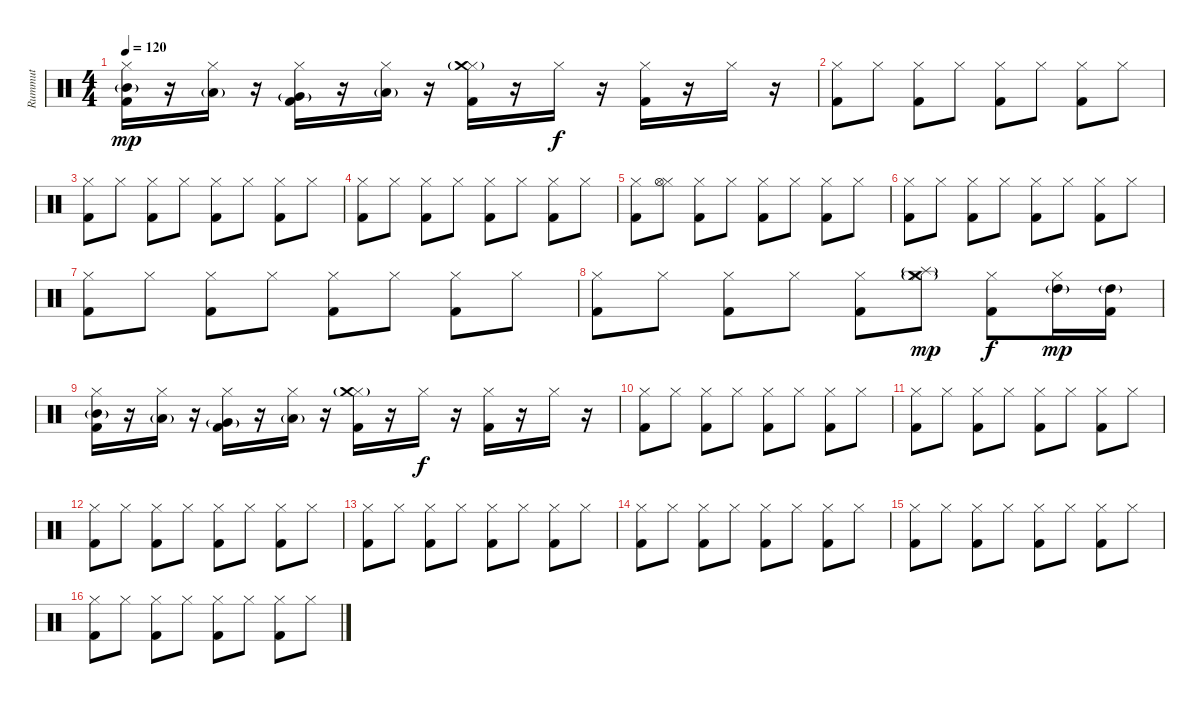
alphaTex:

\track ("Rummut" "Rummut") {instrument percussion}
\staff {score}
\articulation defaults
\ts (4 4)
\tempo 120
\clef neutral
\ks c
("Hi-Hat (closed)" "Kick (hit) 2" "Mid Tom (hit)"{g}).16{dy mp} r.16 ("Hi-Hat (closed)" "Low Tom (hit)"{g}).16 r.16 ("Hi-Hat (closed)" "Kick (hit) 2" "Very Low Tom (hit)"{g}).16 r.16 ("Hi-Hat (closed)" "Low Floor Tom (hit)"{g}).16 r.16 ("Hi-Hat (closed)" "Kick (hit) 2" "Crash medium (hit)"{g}).16 r.16 "Hi-Hat (closed)".16{dy f} r.16 ("Hi-Hat (closed)" "Kick (hit) 2").16 r.16 "Hi-Hat (closed)".16 r.16 |
("Hi-Hat (closed)" "Kick (hit) 2").8 "Hi-Hat (closed)".8 ("Hi-Hat (closed)" "Kick (hit) 2").8 "Hi-Hat (closed)".8 ("Hi-Hat (closed)" "Kick (hit) 2").8 "Hi-Hat (closed)".8 ("Hi-Hat (closed)" "Kick (hit) 2").8 "Hi-Hat (closed)".8 |
("Hi-Hat (closed)" "Kick (hit) 2").8 "Hi-Hat (closed)".8 ("Hi-Hat (closed)" "Kick (hit) 2").8 "Hi-Hat (closed)".8 ("Hi-Hat (closed)" "Kick (hit) 2").8 "Hi-Hat (closed)".8 ("Hi-Hat (closed)" "Kick (hit) 2").8 "Hi-Hat (closed)".8 |
("Hi-Hat (closed)" "Kick (hit) 2").8 "Hi-Hat (closed)".8 ("Hi-Hat (closed)" "Kick (hit) 2").8 "Hi-Hat (closed)".8 ("Hi-Hat (closed)" "Kick (hit) 2").8 "Hi-Hat (closed)".8 ("Hi-Hat (closed)" "Kick (hit) 2").8 "Hi-Hat (closed)".8 |
("Hi-Hat (closed)" "Kick (hit) 2").8 ("Hi-Hat (closed)" "Hi-Hat (open)").8 ("Hi-Hat (closed)" "Kick (hit) 2").8 "Hi-Hat (closed)".8 ("Hi-Hat (closed)" "Kick (hit) 2").8 "Hi-Hat (closed)".8 ("Hi-Hat (closed)" "Kick (hit) 2").8 "Hi-Hat (closed)".8 |
("Hi-Hat (closed)" "Kick (hit) 2").8 "Hi-Hat (closed)".8 ("Hi-Hat (closed)" "Kick (hit) 2").8 "Hi-Hat (closed)".8 ("Hi-Hat (closed)" "Kick (hit) 2").8 "Hi-Hat (closed)".8 ("Hi-Hat (closed)" "Kick (hit) 2").8 "Hi-Hat (closed)".8 |
("Hi-Hat (closed)" "Kick (hit) 2").8 "Hi-Hat (closed)".8 ("Hi-Hat (closed)" "Kick (hit) 2").8 "Hi-Hat (closed)".8 ("Hi-Hat (closed)" "Kick (hit) 2").8 "Hi-Hat (closed)".8 ("Hi-Hat (closed)" "Kick (hit) 2").8 "Hi-Hat (closed)".8 |
("Hi-Hat (closed)" "Kick (hit) 2").8 "Hi-Hat (closed)".8 ("Hi-Hat (closed)" "Kick (hit) 2").8 "Hi-Hat (closed)".8 ("Hi-Hat (closed)" "Kick (hit) 2").8 ("Hi-Hat (closed)" "Crash medium (hit)"{g} "Splash (hit)"{g}).8{dy mp} ("Hi-Hat (closed)" "Kick (hit) 2").8{dy f} ("Hi-Hat (closed)" "High Tom (hit)"{g}).16{dy mp} ("Kick (hit) 2" "High Tom (hit)"{g}).16 |
("Hi-Hat (closed)" "Kick (hit) 2" "Mid Tom (hit)"{g}).16 r.16 ("Hi-Hat (closed)" "Low Tom (hit)"{g}).16 r.16 ("Hi-Hat (closed)" "Kick (hit) 2" "Very Low Tom (hit)"{g}).16 r.16 ("Hi-Hat (closed)" "Low Floor Tom (hit)"{g}).16 r.16 ("Hi-Hat (closed)" "Kick (hit) 2" "Crash medium (hit)"{g}).16 r.16 "Hi-Hat (closed)".16{dy f} r.16 ("Hi-Hat (closed)" "Kick (hit) 2").16 r.16 "Hi-Hat (closed)".16 r.16 |
("Hi-Hat (closed)" "Kick (hit) 2").8 "Hi-Hat (closed)".8 ("Hi-Hat (closed)" "Kick (hit) 2").8 "Hi-Hat (closed)".8 ("Hi-Hat (closed)" "Kick (hit) 2").8 "Hi-Hat (closed)".8 ("Hi-Hat (closed)" "Kick (hit) 2").8 "Hi-Hat (closed)".8 |
("Hi-Hat (closed)" "Kick (hit) 2").8 "Hi-Hat (closed)".8 ("Hi-Hat (closed)" "Kick (hit) 2").8 "Hi-Hat (closed)".8 ("Hi-Hat (closed)" "Kick (hit) 2").8 "Hi-Hat (closed)".8 ("Hi-Hat (closed)" "Kick (hit) 2").8 "Hi-Hat (closed)".8 |
("Hi-Hat (closed)" "Kick (hit) 2").8 "Hi-Hat (closed)".8 ("Hi-Hat (closed)" "Kick (hit) 2").8 "Hi-Hat (closed)".8 ("Hi-Hat (closed)" "Kick (hit) 2").8 "Hi-Hat (closed)".8 ("Hi-Hat (closed)" "Kick (hit) 2").8 "Hi-Hat (closed)".8 |
("Hi-Hat (closed)" "Kick (hit) 2").8 "Hi-Hat (closed)".8 ("Hi-Hat (closed)" "Kick (hit) 2").8 "Hi-Hat (closed)".8 ("Hi-Hat (closed)" "Kick (hit) 2").8 "Hi-Hat (closed)".8 ("Hi-Hat (closed)" "Kick (hit) 2").8 "Hi-Hat (closed)".8 |
("Hi-Hat (closed)" "Kick (hit) 2").8 "Hi-Hat (closed)".8 ("Hi-Hat (closed)" "Kick (hit) 2").8 "Hi-Hat (closed)".8 ("Hi-Hat (closed)" "Kick (hit) 2").8 "Hi-Hat (closed)".8 ("Hi-Hat (closed)" "Kick (hit) 2").8 "Hi-Hat (closed)".8 |
("Hi-Hat (closed)" "Kick (hit) 2").8 "Hi-Hat (closed)".8 ("Hi-Hat (closed)" "Kick (hit) 2").8 "Hi-Hat (closed)".8 ("Hi-Hat (closed)" "Kick (hit) 2").8 "Hi-Hat (closed)".8 ("Hi-Hat (closed)" "Kick (hit) 2").8 "Hi-Hat (closed)".8 |
("Hi-Hat (closed)" "Kick (hit) 2").8 "Hi-Hat (closed)".8 ("Hi-Hat (closed)" "Kick (hit) 2").8 "Hi-Hat (closed)".8 ("Hi-Hat (closed)" "Kick (hit) 2").8 "Hi-Hat (closed)".8 ("Hi-Hat (closed)" "Kick (hit) 2").8 "Hi-Hat (closed)".8
